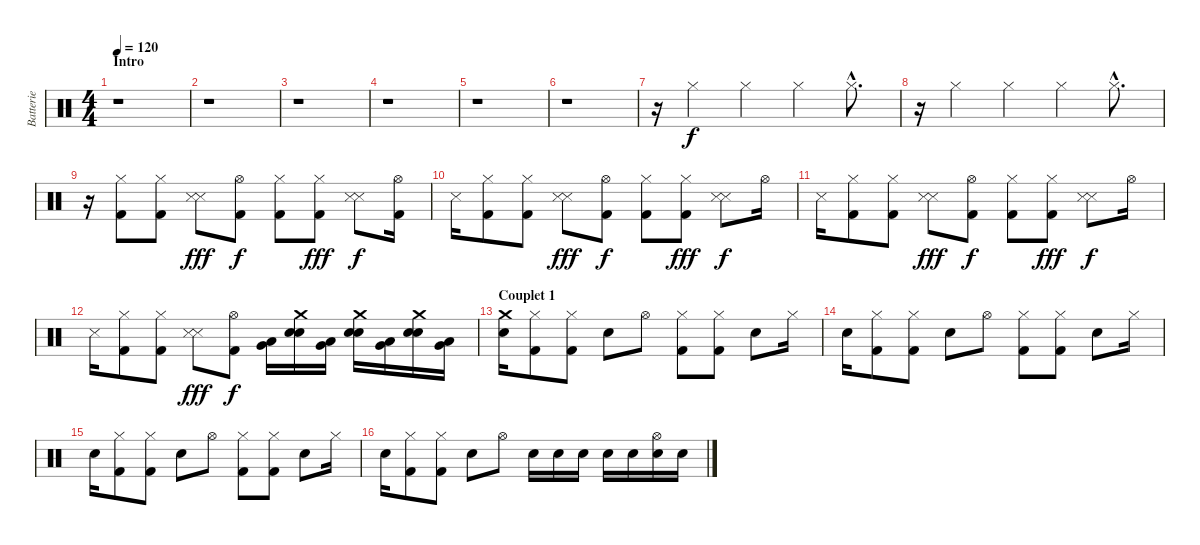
\track ("Batterie" "Batterie") {instrument percussion}
\staff {score}
\articulation defaults
\ts (4 4)
\section ("" "Intro")
\tempo 120
\clef neutral
\ks c
r.1{dy f} |
r.1 |
r.1 |
r.1 |
r.1 |
r.1 |
r.16 "Hi-Hat (closed)".4 "Hi-Hat (closed)".4 "Hi-Hat (closed)".4 "Hi-Hat (closed)"{hac}.8{d} |
r.16 "Hi-Hat (closed)".4 "Hi-Hat (closed)".4 "Hi-Hat (closed)".4 "Hi-Hat (closed)"{hac}.8{d} |
r.16 ("Hi-Hat (closed)" "Kick (hit) 2").8 ("Hi-Hat (closed)" "Kick (hit) 2").8 ("Snare (side stick) 3" "Snare (side stick) 3").8{dy fff} ("Hi-Hat (open)" "Kick (hit) 2").8{dy f} ("Hi-Hat (closed)" "Kick (hit) 2").8 ("Hi-Hat (closed)" "Kick (hit) 2").8{dy fff} ("Snare (side stick) 3" "Snare (side stick) 3").8{dy f} ("Hi-Hat (open)" "Kick (hit) 2").16 |
"Snare (side stick) 3".16 ("Hi-Hat (closed)" "Kick (hit) 2").8 ("Hi-Hat (closed)" "Kick (hit) 2").8 ("Snare (side stick) 3" "Snare (side stick) 3").8{dy fff} ("Hi-Hat (open)" "Kick (hit) 2").8{dy f} ("Hi-Hat (closed)" "Kick (hit) 2").8 ("Hi-Hat (closed)" "Kick (hit) 2").8{dy fff} ("Snare (side stick) 3" "Snare (side stick) 3").8{dy f} "Hi-Hat (open)".16 |
"Snare (side stick) 3".16 ("Hi-Hat (closed)" "Kick (hit) 2").8 ("Hi-Hat (closed)" "Kick (hit) 2").8 ("Snare (side stick) 3" "Snare (side stick) 3").8{dy fff} ("Hi-Hat (open)" "Kick (hit) 2").8{dy f} ("Hi-Hat (closed)" "Kick (hit) 2").8 ("Hi-Hat (closed)" "Kick (hit) 2").8{dy fff} ("Snare (side stick) 3" "Snare (side stick) 3").8{dy f} "Hi-Hat (open)".16 |
"Snare (side stick) 3".16 ("Hi-Hat (closed)" "Kick (hit) 2").8 ("Hi-Hat (closed)" "Kick (hit) 2").8 ("Snare (side stick) 3" "Snare (side stick) 3").8{dy fff} ("Hi-Hat (open)" "Kick (hit) 2").8{dy f} ("Low Tom (hit)" "Very Low Tom (hit)").16 ("Crash medium (hit)" "Snare (hit) 2" "Snare (hit) 2").16 ("Low Tom (hit)" "Very Low Tom (hit)").16 ("Crash medium (hit)" "Snare (hit) 2" "Snare (hit) 2").16 ("Low Tom (hit)" "Very Low Tom (hit)").16 ("Crash medium (hit)" "Snare (hit) 2" "Snare (hit) 2").16 ("Low Tom (hit)" "Very Low Tom (hit)").16 |
\section ("" "Couplet 1")
("Crash medium (hit)" "Snare (hit) 2").16 ("Hi-Hat (closed)" "Kick (hit) 2").8 ("Hi-Hat (closed)" "Kick (hit) 2").8 "Snare (hit) 2".8 "Hi-Hat (open)".8 ("Hi-Hat (closed)" "Kick (hit) 2").8 ("Hi-Hat (closed)" "Kick (hit) 2").8 "Snare (hit) 2".8 "Hi-Hat (closed)".16 |
"Snare (hit) 2".16 ("Hi-Hat (closed)" "Kick (hit) 2").8 ("Hi-Hat (closed)" "Kick (hit) 2").8 "Snare (hit) 2".8 "Hi-Hat (open)".8 ("Hi-Hat (closed)" "Kick (hit) 2").8 ("Hi-Hat (closed)" "Kick (hit) 2").8 "Snare (hit) 2".8 "Hi-Hat (closed)".16 |
"Snare (hit) 2".16 ("Hi-Hat (closed)" "Kick (hit) 2").8 ("Hi-Hat (closed)" "Kick (hit) 2").8 "Snare (hit) 2".8 "Hi-Hat (open)".8 ("Hi-Hat (closed)" "Kick (hit) 2").8 ("Hi-Hat (closed)" "Kick (hit) 2").8 "Snare (hit) 2".8 "Hi-Hat (closed)".16 |
"Snare (hit) 2".16 ("Hi-Hat (closed)" "Kick (hit) 2").8 ("Hi-Hat (closed)" "Kick (hit) 2").8 "Snare (hit) 2".8 "Hi-Hat (open)".8 "Snare (hit) 2".16 "Snare (hit) 2".16 "Snare (hit) 2".16 "Snare (hit) 2".16 "Snare (hit) 2".16 ("Hi-Hat (open)" "Snare (hit) 2").16 "Snare (hit) 2".16
